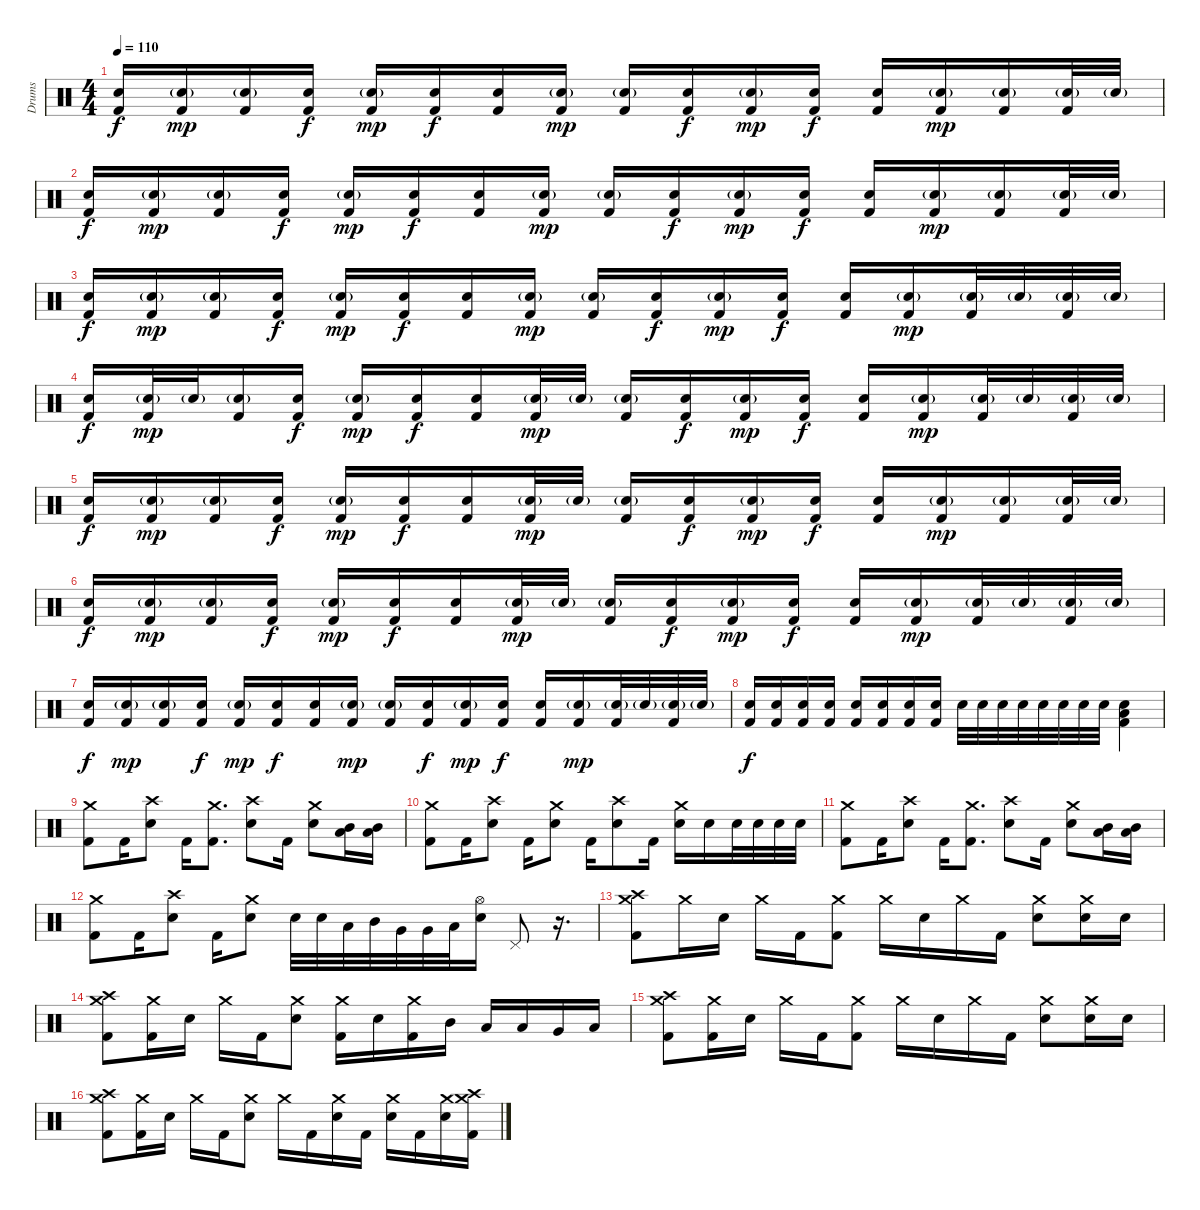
\track ("Drums" "Drums") {instrument percussion}
\staff {score}
\articulation defaults
\ts (4 4)
\tempo 110
\clef neutral
\ks c
("Electric Snare (hit)" "Kick (hit) 2").16{dy f} ("Electric Snare (hit)"{g} "Kick (hit) 2").16{dy mp} ("Electric Snare (hit)"{g} "Kick (hit) 2").16 ("Electric Snare (hit)" "Kick (hit) 2").16{dy f} ("Electric Snare (hit)"{g} "Kick (hit) 2").16{dy mp} ("Electric Snare (hit)" "Kick (hit) 2").16{dy f} ("Electric Snare (hit)" "Kick (hit) 2").16 ("Electric Snare (hit)"{g} "Kick (hit) 2").16{dy mp} ("Electric Snare (hit)"{g} "Kick (hit) 2").16 ("Electric Snare (hit)" "Kick (hit) 2").16{dy f} ("Electric Snare (hit)"{g} "Kick (hit) 2").16{dy mp} ("Electric Snare (hit)" "Kick (hit) 2").16{dy f} ("Electric Snare (hit)" "Kick (hit) 2").16 ("Electric Snare (hit)"{g} "Kick (hit) 2").16{dy mp} ("Electric Snare (hit)"{g} "Kick (hit) 2").16 ("Electric Snare (hit)"{g} "Kick (hit) 2").32 "Electric Snare (hit)"{g}.32 |
("Electric Snare (hit)" "Kick (hit) 2").16{dy f} ("Electric Snare (hit)"{g} "Kick (hit) 2").16{dy mp} ("Electric Snare (hit)"{g} "Kick (hit) 2").16 ("Electric Snare (hit)" "Kick (hit) 2").16{dy f} ("Electric Snare (hit)"{g} "Kick (hit) 2").16{dy mp} ("Electric Snare (hit)" "Kick (hit) 2").16{dy f} ("Electric Snare (hit)" "Kick (hit) 2").16 ("Electric Snare (hit)"{g} "Kick (hit) 2").16{dy mp} ("Electric Snare (hit)"{g} "Kick (hit) 2").16 ("Electric Snare (hit)" "Kick (hit) 2").16{dy f} ("Electric Snare (hit)"{g} "Kick (hit) 2").16{dy mp} ("Electric Snare (hit)" "Kick (hit) 2").16{dy f} ("Electric Snare (hit)" "Kick (hit) 2").16 ("Electric Snare (hit)"{g} "Kick (hit) 2").16{dy mp} ("Electric Snare (hit)"{g} "Kick (hit) 2").16 ("Electric Snare (hit)"{g} "Kick (hit) 2").32 "Electric Snare (hit)"{g}.32 |
("Electric Snare (hit)" "Kick (hit) 2").16{dy f} ("Electric Snare (hit)"{g} "Kick (hit) 2").16{dy mp} ("Electric Snare (hit)"{g} "Kick (hit) 2").16 ("Electric Snare (hit)" "Kick (hit) 2").16{dy f} ("Electric Snare (hit)"{g} "Kick (hit) 2").16{dy mp} ("Electric Snare (hit)" "Kick (hit) 2").16{dy f} ("Electric Snare (hit)" "Kick (hit) 2").16 ("Electric Snare (hit)"{g} "Kick (hit) 2").16{dy mp} ("Electric Snare (hit)"{g} "Kick (hit) 2").16 ("Electric Snare (hit)" "Kick (hit) 2").16{dy f} ("Electric Snare (hit)"{g} "Kick (hit) 2").16{dy mp} ("Electric Snare (hit)" "Kick (hit) 2").16{dy f} ("Electric Snare (hit)" "Kick (hit) 2").16 ("Electric Snare (hit)"{g} "Kick (hit) 2").16{dy mp} ("Electric Snare (hit)"{g} "Kick (hit) 2").32 "Electric Snare (hit)"{g}.32 ("Electric Snare (hit)"{g} "Kick (hit) 2").32 "Electric Snare (hit)"{g}.32 |
("Electric Snare (hit)" "Kick (hit) 2").16{dy f} ("Electric Snare (hit)"{g} "Kick (hit) 2").32{dy mp} "Electric Snare (hit)"{g}.32 ("Electric Snare (hit)"{g} "Kick (hit) 2").16 ("Electric Snare (hit)" "Kick (hit) 2").16{dy f} ("Electric Snare (hit)"{g} "Kick (hit) 2").16{dy mp} ("Electric Snare (hit)" "Kick (hit) 2").16{dy f} ("Electric Snare (hit)" "Kick (hit) 2").16 ("Electric Snare (hit)"{g} "Kick (hit) 2").32{dy mp} "Electric Snare (hit)"{g}.32 ("Electric Snare (hit)"{g} "Kick (hit) 2").16 ("Electric Snare (hit)" "Kick (hit) 2").16{dy f} ("Electric Snare (hit)"{g} "Kick (hit) 2").16{dy mp} ("Electric Snare (hit)" "Kick (hit) 2").16{dy f} ("Electric Snare (hit)" "Kick (hit) 2").16 ("Electric Snare (hit)"{g} "Kick (hit) 2").16{dy mp} ("Electric Snare (hit)"{g} "Kick (hit) 2").32 "Electric Snare (hit)"{g}.32 ("Electric Snare (hit)"{g} "Kick (hit) 2").32 "Electric Snare (hit)"{g}.32 |
("Electric Snare (hit)" "Kick (hit) 2").16{dy f} ("Electric Snare (hit)"{g} "Kick (hit) 2").16{dy mp} ("Electric Snare (hit)"{g} "Kick (hit) 2").16 ("Electric Snare (hit)" "Kick (hit) 2").16{dy f} ("Electric Snare (hit)"{g} "Kick (hit) 2").16{dy mp} ("Electric Snare (hit)" "Kick (hit) 2").16{dy f} ("Electric Snare (hit)" "Kick (hit) 2").16 ("Electric Snare (hit)"{g} "Kick (hit) 2").32{dy mp} "Electric Snare (hit)"{g}.32 ("Electric Snare (hit)"{g} "Kick (hit) 2").16 ("Electric Snare (hit)" "Kick (hit) 2").16{dy f} ("Electric Snare (hit)"{g} "Kick (hit) 2").16{dy mp} ("Electric Snare (hit)" "Kick (hit) 2").16{dy f} ("Electric Snare (hit)" "Kick (hit) 2").16 ("Electric Snare (hit)"{g} "Kick (hit) 2").16{dy mp} ("Electric Snare (hit)"{g} "Kick (hit) 2").16 ("Electric Snare (hit)"{g} "Kick (hit) 2").32 "Electric Snare (hit)"{g}.32 |
("Electric Snare (hit)" "Kick (hit) 2").16{dy f} ("Electric Snare (hit)"{g} "Kick (hit) 2").16{dy mp} ("Electric Snare (hit)"{g} "Kick (hit) 2").16 ("Electric Snare (hit)" "Kick (hit) 2").16{dy f} ("Electric Snare (hit)"{g} "Kick (hit) 2").16{dy mp} ("Electric Snare (hit)" "Kick (hit) 2").16{dy f} ("Electric Snare (hit)" "Kick (hit) 2").16 ("Electric Snare (hit)"{g} "Kick (hit) 2").32{dy mp} "Electric Snare (hit)"{g}.32 ("Electric Snare (hit)"{g} "Kick (hit) 2").16 ("Electric Snare (hit)" "Kick (hit) 2").16{dy f} ("Electric Snare (hit)"{g} "Kick (hit) 2").16{dy mp} ("Electric Snare (hit)" "Kick (hit) 2").16{dy f} ("Electric Snare (hit)" "Kick (hit) 2").16 ("Electric Snare (hit)"{g} "Kick (hit) 2").16{dy mp} ("Electric Snare (hit)"{g} "Kick (hit) 2").32 "Electric Snare (hit)"{g}.32 ("Electric Snare (hit)"{g} "Kick (hit) 2").32 "Electric Snare (hit)"{g}.32 |
("Electric Snare (hit)" "Kick (hit) 2").16{dy f} ("Electric Snare (hit)"{g} "Kick (hit) 2").16{dy mp} ("Electric Snare (hit)"{g} "Kick (hit) 2").16 ("Electric Snare (hit)" "Kick (hit) 2").16{dy f} ("Electric Snare (hit)"{g} "Kick (hit) 2").16{dy mp} ("Electric Snare (hit)" "Kick (hit) 2").16{dy f} ("Electric Snare (hit)" "Kick (hit) 2").16 ("Electric Snare (hit)"{g} "Kick (hit) 2").16{dy mp} ("Electric Snare (hit)"{g} "Kick (hit) 2").16 ("Electric Snare (hit)" "Kick (hit) 2").16{dy f} ("Electric Snare (hit)"{g} "Kick (hit) 2").16{dy mp} ("Electric Snare (hit)" "Kick (hit) 2").16{dy f} ("Electric Snare (hit)" "Kick (hit) 2").16 ("Electric Snare (hit)"{g} "Kick (hit) 2").16{dy mp} ("Electric Snare (hit)"{g} "Kick (hit) 2").32 "Electric Snare (hit)"{g}.32 ("Electric Snare (hit)"{g} "Kick (hit) 2").32 "Electric Snare (hit)"{g}.32 |
("Electric Snare (hit)" "Kick (hit) 2").16{dy f} ("Electric Snare (hit)" "Kick (hit) 2").16 ("Electric Snare (hit)" "Kick (hit) 2").16 ("Electric Snare (hit)" "Kick (hit) 2").16 ("Electric Snare (hit)" "Kick (hit) 2").16 ("Electric Snare (hit)" "Kick (hit) 2").16 ("Electric Snare (hit)" "Kick (hit) 2").16 ("Electric Snare (hit)" "Kick (hit) 2").16 "Electric Snare (hit)".32 "Electric Snare (hit)".32 "Electric Snare (hit)".32 "Electric Snare (hit)".32 "Electric Snare (hit)".32 "Electric Snare (hit)".32 "Electric Snare (hit)".32 "Electric Snare (hit)".32 ("Low Floor Tom (hit)" "Electric Snare (hit)" "Kick (hit) 2").4 |
("Crash medium (hit)" "Kick (hit) 2").8 "Kick (hit) 2".16 ("Crash high (hit)" "Electric Snare (hit)").8 "Kick (hit) 2".16 ("Crash medium (hit)" "Kick (hit) 2").8{d} ("Crash high (hit)" "Electric Snare (hit)").8 "Kick (hit) 2".16 ("Crash medium (hit)" "Electric Snare (hit)").8 ("Low Tom (hit)" "Mid Tom (hit)").16 ("Low Tom (hit)" "Mid Tom (hit)").16 |
("Crash medium (hit)" "Kick (hit) 2").8 "Kick (hit) 2".16 ("Crash high (hit)" "Electric Snare (hit)").8 "Kick (hit) 2".16 ("Crash medium (hit)" "Electric Snare (hit)").8 "Kick (hit) 2".16 ("Crash high (hit)" "Electric Snare (hit)").8 "Kick (hit) 2".16 ("Crash medium (hit)" "Electric Snare (hit)").16 "Electric Snare (hit)".16 "Electric Snare (hit)".32 "Electric Snare (hit)".32 "Electric Snare (hit)".32 "Electric Snare (hit)".32 |
("Crash medium (hit)" "Kick (hit) 2").8 "Kick (hit) 2".16 ("Crash high (hit)" "Electric Snare (hit)").8 "Kick (hit) 2".16 ("Crash medium (hit)" "Kick (hit) 2").8{d} ("Crash high (hit)" "Electric Snare (hit)").8 "Kick (hit) 2".16 ("Crash medium (hit)" "Electric Snare (hit)").8 ("Low Tom (hit)" "Mid Tom (hit)").16 ("Low Tom (hit)" "Mid Tom (hit)").16 |
("Crash medium (hit)" "Kick (hit) 2").8 "Kick (hit) 2".16 ("Crash high (hit)" "Electric Snare (hit)").8 "Kick (hit) 2".16 ("Crash medium (hit)" "Electric Snare (hit)").8 "Electric Snare (hit)".32 "Electric Snare (hit)".32 "Low Tom (hit)".32 "Mid Tom (hit)".32 "Very Low Tom (hit)".32 "Very Low Tom (hit)".32 "Low Floor Tom (hit)".32 ("Hi-Hat (open)" "Electric Snare (hit)").16 "Pedal Hi-Hat (hit)".8 r.16{d} |
("Crash medium (hit)" "Crash high (hit)" "Kick (hit) 2").8 "Crash medium (hit)".16 "Electric Snare (hit)".16 "Crash medium (hit)".16 "Kick (hit) 2".16 ("Crash medium (hit)" "Kick (hit) 2").8 "Crash medium (hit)".16 "Electric Snare (hit)".16 "Crash medium (hit)".16 "Kick (hit) 2".16 ("Crash medium (hit)" "Electric Snare (hit)").8 ("Crash medium (hit)" "Electric Snare (hit)").16 "Electric Snare (hit)".16 |
("Crash medium (hit)" "Crash high (hit)" "Kick (hit) 2").8 ("Crash medium (hit)" "Kick (hit) 2").16 "Electric Snare (hit)".16 "Crash medium (hit)".16 "Kick (hit) 2".16 ("Crash medium (hit)" "Electric Snare (hit)").8 ("Crash medium (hit)" "Kick (hit) 2").16 "Electric Snare (hit)".16 ("Crash medium (hit)" "Kick (hit) 2").16 "Mid Tom (hit)".16 "Low Tom (hit)".16 "Low Tom (hit)".16 "Very Low Tom (hit)".16 "Low Floor Tom (hit)".16 |
("Crash medium (hit)" "Crash high (hit)" "Kick (hit) 2").8 ("Crash medium (hit)" "Kick (hit) 2").16 "Electric Snare (hit)".16 "Crash medium (hit)".16 "Kick (hit) 2".16 ("Crash medium (hit)" "Kick (hit) 2").8 "Crash medium (hit)".16 "Electric Snare (hit)".16 "Crash medium (hit)".16 "Kick (hit) 2".16 ("Crash medium (hit)" "Electric Snare (hit)").8 ("Crash medium (hit)" "Electric Snare (hit)").16 "Electric Snare (hit)".16 |
("Crash medium (hit)" "Crash high (hit)" "Kick (hit) 2").8 ("Crash medium (hit)" "Kick (hit) 2").16 "Electric Snare (hit)".16 "Crash medium (hit)".16 "Kick (hit) 2".16 ("Crash medium (hit)" "Electric Snare (hit)").8 "Crash medium (hit)".16 "Kick (hit) 2".16 ("Crash medium (hit)" "Electric Snare (hit)").16 "Kick (hit) 2".16 ("Crash medium (hit)" "Electric Snare (hit)").16 "Kick (hit) 2".16 ("Crash medium (hit)" "Electric Snare (hit)").16 ("Crash medium (hit)" "Crash high (hit)" "Kick (hit) 2").16
